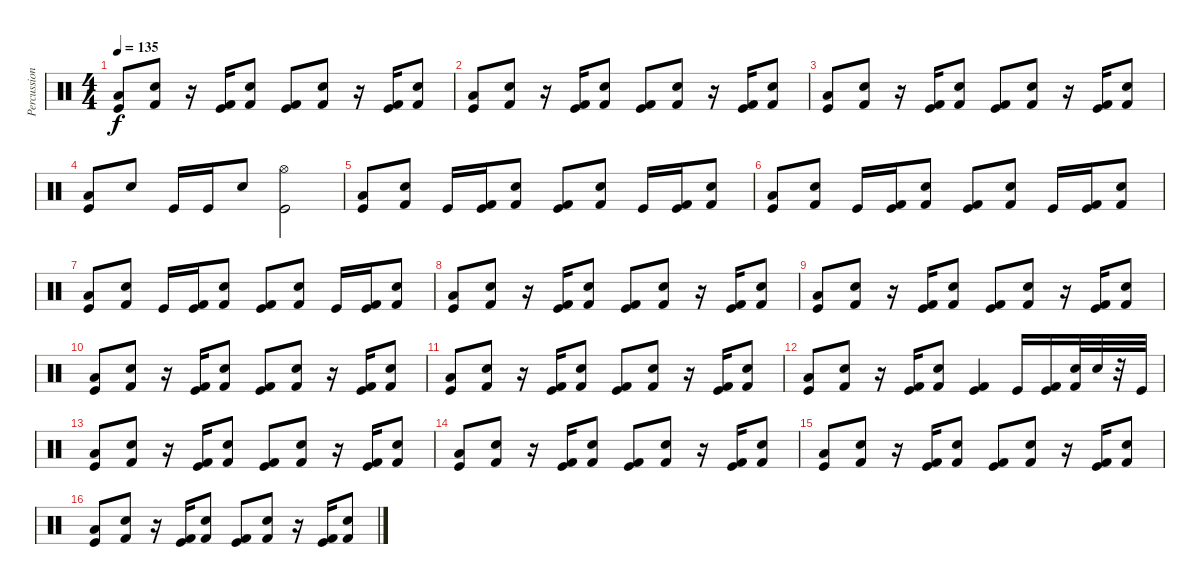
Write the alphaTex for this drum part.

\track ("Percussion" "Percussion") {instrument percussion}
\staff {score}
\articulation defaults
\ts (4 4)
\tempo 135
\clef neutral
\ks c
("Low Tom (hit)" "Kick (hit)").8{dy f} ("Kick (hit) 2" "Snare (hit) 2").8 r.16 ("Kick (hit) 2" "Kick (hit)").16 ("Kick (hit) 2" "Snare (hit) 2").8 ("Kick (hit) 2" "Kick (hit)").8 ("Kick (hit) 2" "Snare (hit) 2").8 r.16 ("Kick (hit) 2" "Kick (hit)").16 ("Kick (hit) 2" "Snare (hit) 2").8 |
("Low Tom (hit)" "Kick (hit)").8 ("Kick (hit) 2" "Snare (hit) 2").8 r.16 ("Kick (hit) 2" "Kick (hit)").16 ("Kick (hit) 2" "Snare (hit) 2").8 ("Kick (hit) 2" "Kick (hit)").8 ("Kick (hit) 2" "Snare (hit) 2").8 r.16 ("Kick (hit) 2" "Kick (hit)").16 ("Kick (hit) 2" "Snare (hit) 2").8 |
("Low Tom (hit)" "Kick (hit)").8 ("Kick (hit) 2" "Snare (hit) 2").8 r.16 ("Kick (hit) 2" "Kick (hit)").16 ("Kick (hit) 2" "Snare (hit) 2").8 ("Kick (hit) 2" "Kick (hit)").8 ("Kick (hit) 2" "Snare (hit) 2").8 r.16 ("Kick (hit) 2" "Kick (hit)").16 ("Kick (hit) 2" "Snare (hit) 2").8 |
("Low Tom (hit)" "Kick (hit)").8 "Snare (hit) 2".8 "Kick (hit)".16 "Kick (hit)".16 "Snare (hit) 2".8 ("Hi-Hat (open)" "Kick (hit)").2 |
("Low Tom (hit)" "Kick (hit)").8 ("Kick (hit) 2" "Snare (hit) 2").8 "Kick (hit)".16 ("Kick (hit) 2" "Kick (hit)").16 ("Kick (hit) 2" "Snare (hit) 2").8 ("Kick (hit) 2" "Kick (hit)").8 ("Kick (hit) 2" "Snare (hit) 2").8 "Kick (hit)".16 ("Kick (hit) 2" "Kick (hit)").16 ("Kick (hit) 2" "Snare (hit) 2").8 |
("Low Tom (hit)" "Kick (hit)").8 ("Kick (hit) 2" "Snare (hit) 2").8 "Kick (hit)".16 ("Kick (hit) 2" "Kick (hit)").16 ("Kick (hit) 2" "Snare (hit) 2").8 ("Kick (hit) 2" "Kick (hit)").8 ("Kick (hit) 2" "Snare (hit) 2").8 "Kick (hit)".16 ("Kick (hit) 2" "Kick (hit)").16 ("Kick (hit) 2" "Snare (hit) 2").8 |
("Low Tom (hit)" "Kick (hit)").8 ("Kick (hit) 2" "Snare (hit) 2").8 "Kick (hit)".16 ("Kick (hit) 2" "Kick (hit)").16 ("Kick (hit) 2" "Snare (hit) 2").8 ("Kick (hit) 2" "Kick (hit)").8 ("Kick (hit) 2" "Snare (hit) 2").8 "Kick (hit)".16 ("Kick (hit) 2" "Kick (hit)").16 ("Kick (hit) 2" "Snare (hit) 2").8 |
("Low Tom (hit)" "Kick (hit)").8 ("Kick (hit) 2" "Snare (hit) 2").8 r.16 ("Kick (hit) 2" "Kick (hit)").16 ("Kick (hit) 2" "Snare (hit) 2").8 ("Kick (hit) 2" "Kick (hit)").8 ("Kick (hit) 2" "Snare (hit) 2").8 r.16 ("Kick (hit) 2" "Kick (hit)").16 ("Kick (hit) 2" "Snare (hit) 2").8 |
("Low Tom (hit)" "Kick (hit)").8 ("Kick (hit) 2" "Snare (hit) 2").8 r.16 ("Kick (hit) 2" "Kick (hit)").16 ("Kick (hit) 2" "Snare (hit) 2").8 ("Kick (hit) 2" "Kick (hit)").8 ("Kick (hit) 2" "Snare (hit) 2").8 r.16 ("Kick (hit) 2" "Kick (hit)").16 ("Kick (hit) 2" "Snare (hit) 2").8 |
("Low Tom (hit)" "Kick (hit)").8 ("Kick (hit) 2" "Snare (hit) 2").8 r.16 ("Kick (hit) 2" "Kick (hit)").16 ("Kick (hit) 2" "Snare (hit) 2").8 ("Kick (hit) 2" "Kick (hit)").8 ("Kick (hit) 2" "Snare (hit) 2").8 r.16 ("Kick (hit) 2" "Kick (hit)").16 ("Kick (hit) 2" "Snare (hit) 2").8 |
("Low Tom (hit)" "Kick (hit)").8 ("Kick (hit) 2" "Snare (hit) 2").8 r.16 ("Kick (hit) 2" "Kick (hit)").16 ("Kick (hit) 2" "Snare (hit) 2").8 ("Kick (hit) 2" "Kick (hit)").8 ("Kick (hit) 2" "Snare (hit) 2").8 r.16 ("Kick (hit) 2" "Kick (hit)").16 ("Kick (hit) 2" "Snare (hit) 2").8 |
("Low Tom (hit)" "Kick (hit)").8 ("Kick (hit) 2" "Snare (hit) 2").8 r.16 ("Kick (hit) 2" "Kick (hit)").16 ("Kick (hit) 2" "Snare (hit) 2").8 ("Kick (hit) 2" "Kick (hit)").4 "Kick (hit)".16 ("Kick (hit) 2" "Kick (hit)").16 ("Kick (hit) 2" "Snare (hit) 2").32 "Snare (hit) 2".32 r.32 "Kick (hit)".32 |
("Low Tom (hit)" "Kick (hit)").8 ("Kick (hit) 2" "Snare (hit) 2").8 r.16 ("Kick (hit) 2" "Kick (hit)").16 ("Kick (hit) 2" "Snare (hit) 2").8 ("Kick (hit) 2" "Kick (hit)").8 ("Kick (hit) 2" "Snare (hit) 2").8 r.16 ("Kick (hit) 2" "Kick (hit)").16 ("Kick (hit) 2" "Snare (hit) 2").8 |
("Low Tom (hit)" "Kick (hit)").8 ("Kick (hit) 2" "Snare (hit) 2").8 r.16 ("Kick (hit) 2" "Kick (hit)").16 ("Kick (hit) 2" "Snare (hit) 2").8 ("Kick (hit) 2" "Kick (hit)").8 ("Kick (hit) 2" "Snare (hit) 2").8 r.16 ("Kick (hit) 2" "Kick (hit)").16 ("Kick (hit) 2" "Snare (hit) 2").8 |
("Low Tom (hit)" "Kick (hit)").8 ("Kick (hit) 2" "Snare (hit) 2").8 r.16 ("Kick (hit) 2" "Kick (hit)").16 ("Kick (hit) 2" "Snare (hit) 2").8 ("Kick (hit) 2" "Kick (hit)").8 ("Kick (hit) 2" "Snare (hit) 2").8 r.16 ("Kick (hit) 2" "Kick (hit)").16 ("Kick (hit) 2" "Snare (hit) 2").8 |
("Low Tom (hit)" "Kick (hit)").8 ("Kick (hit) 2" "Snare (hit) 2").8 r.16 ("Kick (hit) 2" "Kick (hit)").16 ("Kick (hit) 2" "Snare (hit) 2").8 ("Kick (hit) 2" "Kick (hit)").8 ("Kick (hit) 2" "Snare (hit) 2").8 r.16 ("Kick (hit) 2" "Kick (hit)").16 ("Kick (hit) 2" "Snare (hit) 2").8
